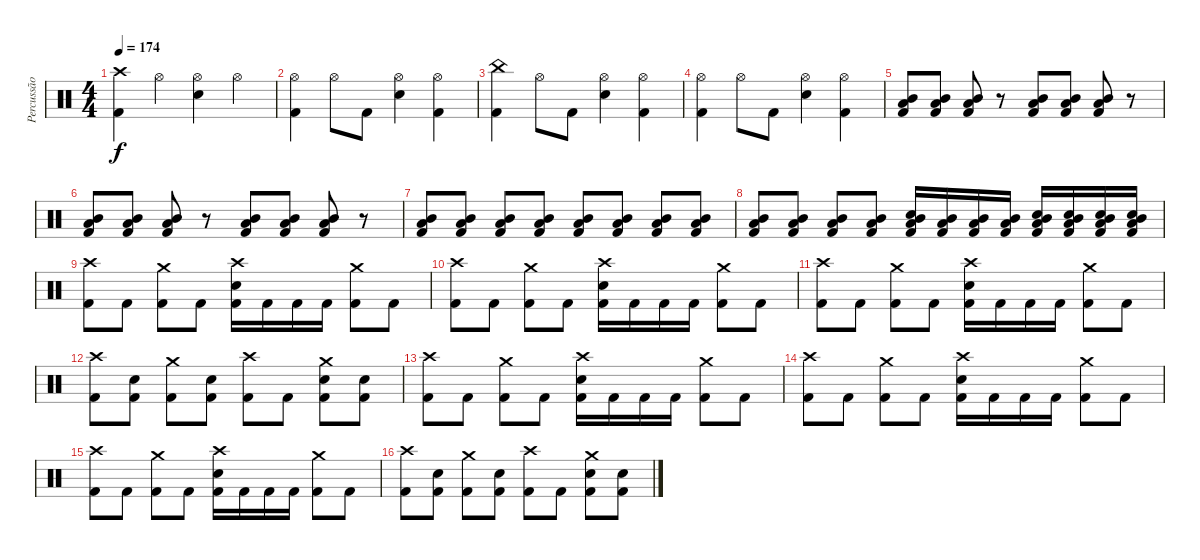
\track ("Percussão" "Percussão") {instrument percussion}
\staff {score}
\articulation defaults
\ts (4 4)
\tempo 174
\clef neutral
\ks c
("Crash high (hit)" "Kick (hit) 2").4{dy f} "Hi-Hat (open)".4 ("Electric Snare (hit)" "Hi-Hat (open)").4 "Hi-Hat (open)".4 |
("Hi-Hat (open)" "Kick (hit) 2").4 "Hi-Hat (open)".8 "Kick (hit) 2".8 ("Hi-Hat (open)" "Electric Snare (hit)").4 ("Hi-Hat (open)" "Kick (hit) 2").4 |
("China (hit)" "Kick (hit) 2").4 "Hi-Hat (open)".8 "Kick (hit) 2".8 ("Hi-Hat (open)" "Electric Snare (hit)").4 ("Hi-Hat (open)" "Kick (hit) 2").4 |
("Hi-Hat (open)" "Kick (hit) 2").4 "Hi-Hat (open)".8 "Kick (hit) 2".8 ("Hi-Hat (open)" "Electric Snare (hit)").4 ("Hi-Hat (open)" "Kick (hit) 2").4 |
("Low Tom (hit)" "Mid Tom (hit)" "Kick (hit) 2").8 ("Low Tom (hit)" "Mid Tom (hit)" "Kick (hit) 2").8 ("Low Tom (hit)" "Mid Tom (hit)" "Kick (hit) 2").8 r.8 ("Low Tom (hit)" "Mid Tom (hit)" "Kick (hit) 2").8 ("Low Tom (hit)" "Mid Tom (hit)" "Kick (hit) 2").8 ("Low Tom (hit)" "Mid Tom (hit)" "Kick (hit) 2").8 r.8 |
("Low Tom (hit)" "Mid Tom (hit)" "Kick (hit) 2").8 ("Low Tom (hit)" "Mid Tom (hit)" "Kick (hit) 2").8 ("Low Tom (hit)" "Mid Tom (hit)" "Kick (hit) 2").8 r.8 ("Low Tom (hit)" "Mid Tom (hit)" "Kick (hit) 2").8 ("Low Tom (hit)" "Mid Tom (hit)" "Kick (hit) 2").8 ("Low Tom (hit)" "Mid Tom (hit)" "Kick (hit) 2").8 r.8 |
("Low Tom (hit)" "Mid Tom (hit)" "Kick (hit) 2").8 ("Low Tom (hit)" "Mid Tom (hit)" "Kick (hit) 2").8 ("Low Tom (hit)" "Mid Tom (hit)" "Kick (hit) 2").8 ("Low Tom (hit)" "Mid Tom (hit)" "Kick (hit) 2").8 ("Low Tom (hit)" "Mid Tom (hit)" "Kick (hit) 2").8 ("Low Tom (hit)" "Mid Tom (hit)" "Kick (hit) 2").8 ("Low Tom (hit)" "Mid Tom (hit)" "Kick (hit) 2").8 ("Low Tom (hit)" "Mid Tom (hit)" "Kick (hit) 2").8 |
("Low Tom (hit)" "Mid Tom (hit)" "Kick (hit) 2").8 ("Low Tom (hit)" "Mid Tom (hit)" "Kick (hit) 2").8 ("Low Tom (hit)" "Mid Tom (hit)" "Kick (hit) 2").8 ("Low Tom (hit)" "Mid Tom (hit)" "Kick (hit) 2").8 ("Low Tom (hit)" "Mid Tom (hit)" "Electric Snare (hit)" "Kick (hit) 2").16 ("Low Tom (hit)" "Mid Tom (hit)" "Kick (hit) 2").16 ("Low Tom (hit)" "Mid Tom (hit)" "Kick (hit) 2").16 ("Low Tom (hit)" "Mid Tom (hit)" "Kick (hit) 2").16 ("Low Tom (hit)" "Mid Tom (hit)" "Electric Snare (hit)" "Kick (hit) 2").16 ("Low Tom (hit)" "Mid Tom (hit)" "Electric Snare (hit)" "Kick (hit) 2").16 ("Low Tom (hit)" "Mid Tom (hit)" "Electric Snare (hit)" "Kick (hit) 2").16 ("Low Tom (hit)" "Mid Tom (hit)" "Electric Snare (hit)" "Kick (hit) 2").16 |
("Crash high (hit)" "Kick (hit) 2").8 "Kick (hit) 2".8 ("Crash medium (hit)" "Kick (hit) 2").8 "Kick (hit) 2".8 ("Crash high (hit)" "Electric Snare (hit)" "Kick (hit) 2").16 "Kick (hit) 2".16 "Kick (hit) 2".16 "Kick (hit) 2".16 ("Crash medium (hit)" "Kick (hit) 2").8 "Kick (hit) 2".8 |
("Crash high (hit)" "Kick (hit) 2").8 "Kick (hit) 2".8 ("Crash medium (hit)" "Kick (hit) 2").8 "Kick (hit) 2".8 ("Crash high (hit)" "Electric Snare (hit)" "Kick (hit) 2").16 "Kick (hit) 2".16 "Kick (hit) 2".16 "Kick (hit) 2".16 ("Crash medium (hit)" "Kick (hit) 2").8 "Kick (hit) 2".8 |
("Crash high (hit)" "Kick (hit) 2").8 "Kick (hit) 2".8 ("Crash medium (hit)" "Kick (hit) 2").8 "Kick (hit) 2".8 ("Crash high (hit)" "Electric Snare (hit)" "Kick (hit) 2").16 "Kick (hit) 2".16 "Kick (hit) 2".16 "Kick (hit) 2".16 ("Crash medium (hit)" "Kick (hit) 2").8 "Kick (hit) 2".8 |
("Crash high (hit)" "Kick (hit) 2").8 ("Electric Snare (hit)" "Kick (hit) 2").8 ("Crash medium (hit)" "Kick (hit) 2").8 ("Electric Snare (hit)" "Kick (hit) 2").8 ("Crash high (hit)" "Kick (hit) 2").8 "Kick (hit) 2".8 ("Crash medium (hit)" "Electric Snare (hit)" "Kick (hit) 2").8 ("Electric Snare (hit)" "Kick (hit) 2").8 |
("Crash high (hit)" "Kick (hit) 2").8 "Kick (hit) 2".8 ("Crash medium (hit)" "Kick (hit) 2").8 "Kick (hit) 2".8 ("Crash high (hit)" "Electric Snare (hit)" "Kick (hit) 2").16 "Kick (hit) 2".16 "Kick (hit) 2".16 "Kick (hit) 2".16 ("Crash medium (hit)" "Kick (hit) 2").8 "Kick (hit) 2".8 |
("Crash high (hit)" "Kick (hit) 2").8 "Kick (hit) 2".8 ("Crash medium (hit)" "Kick (hit) 2").8 "Kick (hit) 2".8 ("Crash high (hit)" "Electric Snare (hit)" "Kick (hit) 2").16 "Kick (hit) 2".16 "Kick (hit) 2".16 "Kick (hit) 2".16 ("Crash medium (hit)" "Kick (hit) 2").8 "Kick (hit) 2".8 |
("Crash high (hit)" "Kick (hit) 2").8 "Kick (hit) 2".8 ("Crash medium (hit)" "Kick (hit) 2").8 "Kick (hit) 2".8 ("Crash high (hit)" "Electric Snare (hit)" "Kick (hit) 2").16 "Kick (hit) 2".16 "Kick (hit) 2".16 "Kick (hit) 2".16 ("Crash medium (hit)" "Kick (hit) 2").8 "Kick (hit) 2".8 |
("Crash high (hit)" "Kick (hit) 2").8 ("Electric Snare (hit)" "Kick (hit) 2").8 ("Crash medium (hit)" "Kick (hit) 2").8 ("Electric Snare (hit)" "Kick (hit) 2").8 ("Crash high (hit)" "Kick (hit) 2").8 "Kick (hit) 2".8 ("Crash medium (hit)" "Electric Snare (hit)" "Kick (hit) 2").8 ("Electric Snare (hit)" "Kick (hit) 2").8
